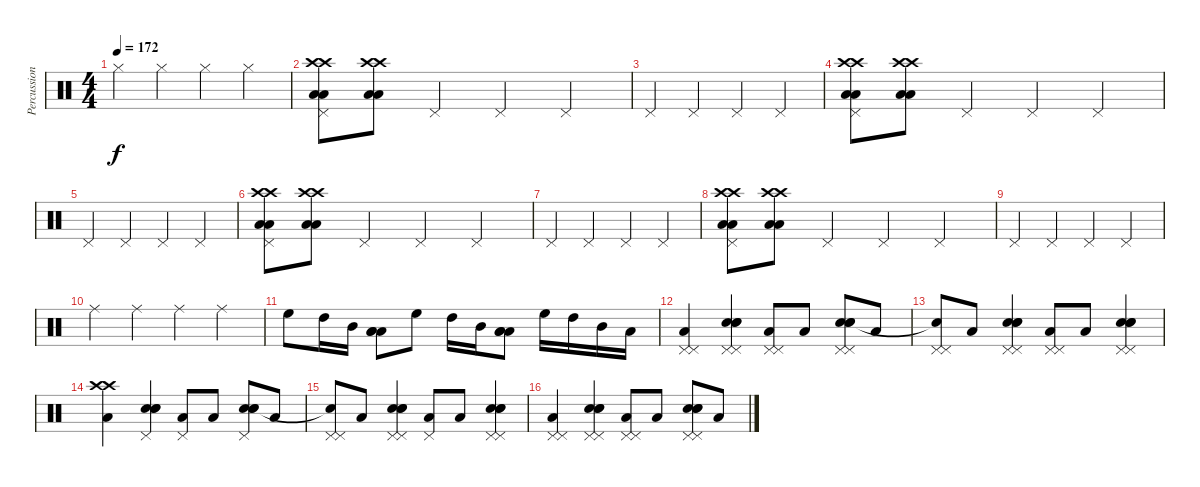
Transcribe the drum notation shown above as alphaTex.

\track ("Percussion" "Percussion") {instrument percussion}
\staff {score}
\articulation defaults
\ts (4 4)
\tempo 172
\clef neutral
\ks c "Hi-Hat (closed)".4{dy f} "Hi-Hat (closed)".4 "Hi-Hat (closed)".4 "Hi-Hat (closed)".4
|
("Pedal Hi-Hat (hit)" "Crash high (hit)" "Crash high (hit)" "Low Floor Tom (hit)" "Low Floor Tom (hit)").8 ("Crash high (hit)" "Crash high (hit)" "Low Floor Tom (hit)" "Low Floor Tom (hit)").8 "Pedal Hi-Hat (hit)".4 "Pedal Hi-Hat (hit)".4 "Pedal Hi-Hat (hit)".4 |
"Pedal Hi-Hat (hit)".4 "Pedal Hi-Hat (hit)".4 "Pedal Hi-Hat (hit)".4 "Pedal Hi-Hat (hit)".4 |
("Pedal Hi-Hat (hit)" "Crash high (hit)" "Crash high (hit)" "Low Floor Tom (hit)" "Low Floor Tom (hit)").8 ("Crash high (hit)" "Crash high (hit)" "Low Floor Tom (hit)" "Low Floor Tom (hit)").8 "Pedal Hi-Hat (hit)".4 "Pedal Hi-Hat (hit)".4 "Pedal Hi-Hat (hit)".4 |
"Pedal Hi-Hat (hit)".4 "Pedal Hi-Hat (hit)".4 "Pedal Hi-Hat (hit)".4 "Pedal Hi-Hat (hit)".4 |
("Pedal Hi-Hat (hit)" "Crash high (hit)" "Crash high (hit)" "Low Floor Tom (hit)" "Low Floor Tom (hit)").8 ("Crash high (hit)" "Crash high (hit)" "Low Floor Tom (hit)" "Low Floor Tom (hit)").8 "Pedal Hi-Hat (hit)".4 "Pedal Hi-Hat (hit)".4 "Pedal Hi-Hat (hit)".4 |
"Pedal Hi-Hat (hit)".4 "Pedal Hi-Hat (hit)".4 "Pedal Hi-Hat (hit)".4 "Pedal Hi-Hat (hit)".4 |
("Pedal Hi-Hat (hit)" "Crash high (hit)" "Crash high (hit)" "Low Floor Tom (hit)" "Low Floor Tom (hit)").8 ("Crash high (hit)" "Crash high (hit)" "Low Floor Tom (hit)" "Low Floor Tom (hit)").8 "Pedal Hi-Hat (hit)".4 "Pedal Hi-Hat (hit)".4 "Pedal Hi-Hat (hit)".4 |
"Pedal Hi-Hat (hit)".4 "Pedal Hi-Hat (hit)".4 "Pedal Hi-Hat (hit)".4 "Pedal Hi-Hat (hit)".4 |
"Ride (middle)".4 "Ride (middle)".4 "Ride (middle)".4 "Ride (middle)".4 |
"High Floor Tom (hit)".8 "High Tom (hit)".16 "Mid Tom (hit)".16 ("Low Tom (hit)" "Low Floor Tom (hit)" "Low Floor Tom (hit)").8 "High Floor Tom (hit)".8 "High Tom (hit)".16 "Mid Tom (hit)".16 ("Low Tom (hit)" "Low Floor Tom (hit)" "Low Floor Tom (hit)").8 "High Floor Tom (hit)".16 "High Tom (hit)".16 "Mid Tom (hit)".16 "Low Tom (hit)".16 |
("Pedal Hi-Hat (hit)" "Pedal Hi-Hat (hit)" "Low Floor Tom (hit)").4 ("Pedal Hi-Hat (hit)" "Pedal Hi-Hat (hit)" "Electric Snare (hit)" "Electric Snare (hit)" "Electric Snare (hit)").4 ("Pedal Hi-Hat (hit)" "Pedal Hi-Hat (hit)" "Low Floor Tom (hit)").8 "Low Floor Tom (hit)".8 ("Pedal Hi-Hat (hit)" "Pedal Hi-Hat (hit)" "Electric Snare (hit)" "Electric Snare (hit)" "Electric Snare (hit)").8 "Low Floor Tom (hit)".8 |
("Pedal Hi-Hat (hit)" "Pedal Hi-Hat (hit)" "Snare (hit)"{t}).8 "Low Floor Tom (hit)".8 ("Pedal Hi-Hat (hit)" "Pedal Hi-Hat (hit)" "Electric Snare (hit)" "Electric Snare (hit)" "Electric Snare (hit)").4 ("Pedal Hi-Hat (hit)" "Pedal Hi-Hat (hit)" "Low Floor Tom (hit)").8 "Low Floor Tom (hit)".8 ("Pedal Hi-Hat (hit)" "Pedal Hi-Hat (hit)" "Electric Snare (hit)" "Electric Snare (hit)" "Electric Snare (hit)").4 |
("Crash high (hit)" "Crash high (hit)" "Low Floor Tom (hit)").4 ("Pedal Hi-Hat (hit)" "Electric Snare (hit)" "Electric Snare (hit)" "Electric Snare (hit)").4 ("Pedal Hi-Hat (hit)" "Low Floor Tom (hit)").8 "Low Floor Tom (hit)".8 ("Pedal Hi-Hat (hit)" "Electric Snare (hit)" "Electric Snare (hit)" "Electric Snare (hit)").8 "Low Floor Tom (hit)".8 |
("Pedal Hi-Hat (hit)" "Pedal Hi-Hat (hit)" "Snare (hit)"{t}).8 "Low Floor Tom (hit)".8 ("Pedal Hi-Hat (hit)" "Pedal Hi-Hat (hit)" "Electric Snare (hit)" "Electric Snare (hit)" "Electric Snare (hit)").4 ("Pedal Hi-Hat (hit)" "Low Floor Tom (hit)").8 "Low Floor Tom (hit)".8 ("Pedal Hi-Hat (hit)" "Pedal Hi-Hat (hit)" "Electric Snare (hit)" "Electric Snare (hit)" "Electric Snare (hit)").4 |
("Pedal Hi-Hat (hit)" "Pedal Hi-Hat (hit)" "Low Floor Tom (hit)").4 ("Pedal Hi-Hat (hit)" "Pedal Hi-Hat (hit)" "Electric Snare (hit)" "Electric Snare (hit)" "Electric Snare (hit)").4 ("Pedal Hi-Hat (hit)" "Pedal Hi-Hat (hit)" "Low Floor Tom (hit)").8 "Low Floor Tom (hit)".8 ("Pedal Hi-Hat (hit)" "Pedal Hi-Hat (hit)" "Electric Snare (hit)" "Electric Snare (hit)" "Electric Snare (hit)").8 "Low Floor Tom (hit)".8
